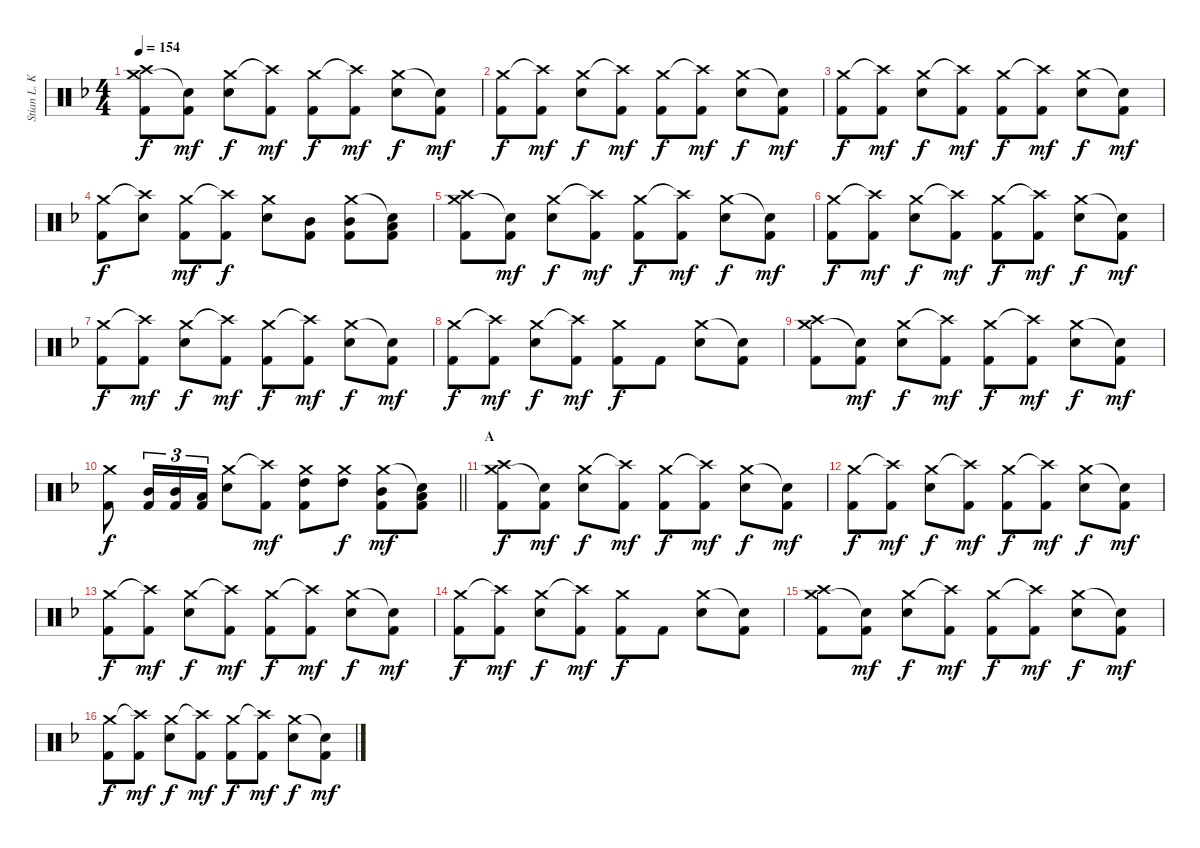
\track ("Stian L. Kristoffersen" "Stian L. K") {instrument percussion}
\staff {score}
\articulation defaults
\ts (4 4)
\tempo 154
\clef neutral
\ks f
("Crash medium (hit)" "Crash high (hit)" "Kick (hit) 2").8{dy f} ("Snare (hit)"{t} "Kick (hit) 2").8{dy mf} ("Crash medium (hit)" "Snare (hit) 2").8{dy f} ("Crash high (hit)"{t} "Kick (hit) 2").8{dy mf} ("Crash medium (hit)" "Kick (hit) 2").8{dy f} ("Crash high (hit)"{t} "Kick (hit) 2").8{dy mf} ("Crash medium (hit)" "Snare (hit) 2").8{dy f} ("Snare (hit)"{t} "Kick (hit) 2").8{dy mf} |
("Crash medium (hit)" "Kick (hit) 2").8{dy f} ("Crash high (hit)"{t} "Kick (hit) 2").8{dy mf} ("Crash medium (hit)" "Snare (hit) 2").8{dy f} ("Crash high (hit)"{t} "Kick (hit) 2").8{dy mf} ("Crash medium (hit)" "Kick (hit) 2").8{dy f} ("Crash high (hit)"{t} "Kick (hit) 2").8{dy mf} ("Crash medium (hit)" "Snare (hit) 2").8{dy f} ("Snare (hit)"{t} "Kick (hit) 2").8{dy mf} |
("Crash medium (hit)" "Kick (hit) 2").8{dy f} ("Crash high (hit)"{t} "Kick (hit) 2").8{dy mf} ("Crash medium (hit)" "Snare (hit) 2").8{dy f} ("Crash high (hit)"{t} "Kick (hit) 2").8{dy mf} ("Crash medium (hit)" "Kick (hit) 2").8{dy f} ("Crash high (hit)"{t} "Kick (hit) 2").8{dy mf} ("Crash medium (hit)" "Snare (hit) 2").8{dy f} ("Snare (hit)"{t} "Kick (hit) 2").8{dy mf} |
("Crash medium (hit)" "Kick (hit) 2").8{dy f} ("Crash high (hit)"{t} "Snare (hit) 2").8 ("Crash medium (hit)" "Kick (hit) 2").8{dy mf} ("Crash high (hit)"{t} "Kick (hit) 2").8{dy f} ("Crash medium (hit)" "Snare (hit) 2").8 ("Mid Tom (hit)" "Kick (hit) 2").8 ("Crash medium (hit)" "Mid Tom (hit)" "Kick (hit) 2").8 ("Snare (hit)"{t} "Low Tom (hit)" "Kick (hit) 2").8 |
("Crash medium (hit)" "Crash high (hit)" "Kick (hit) 2").8 ("Snare (hit)"{t} "Kick (hit) 2").8{dy mf} ("Crash medium (hit)" "Snare (hit) 2").8{dy f} ("Crash high (hit)"{t} "Kick (hit) 2").8{dy mf} ("Crash medium (hit)" "Kick (hit) 2").8{dy f} ("Crash high (hit)"{t} "Kick (hit) 2").8{dy mf} ("Crash medium (hit)" "Snare (hit) 2").8{dy f} ("Snare (hit)"{t} "Kick (hit) 2").8{dy mf} |
("Crash medium (hit)" "Kick (hit) 2").8{dy f} ("Crash high (hit)"{t} "Kick (hit) 2").8{dy mf} ("Crash medium (hit)" "Snare (hit) 2").8{dy f} ("Crash high (hit)"{t} "Kick (hit) 2").8{dy mf} ("Crash medium (hit)" "Kick (hit) 2").8{dy f} ("Crash high (hit)"{t} "Kick (hit) 2").8{dy mf} ("Crash medium (hit)" "Snare (hit) 2").8{dy f} ("Snare (hit)"{t} "Kick (hit) 2").8{dy mf} |
("Crash medium (hit)" "Kick (hit) 2").8{dy f} ("Crash high (hit)"{t} "Kick (hit) 2").8{dy mf} ("Crash medium (hit)" "Snare (hit) 2").8{dy f} ("Crash high (hit)"{t} "Kick (hit) 2").8{dy mf} ("Crash medium (hit)" "Kick (hit) 2").8{dy f} ("Crash high (hit)"{t} "Kick (hit) 2").8{dy mf} ("Crash medium (hit)" "Snare (hit) 2").8{dy f} ("Snare (hit)"{t} "Kick (hit) 2").8{dy mf} |
("Crash medium (hit)" "Kick (hit) 2").8{dy f} ("Crash high (hit)"{t} "Kick (hit) 2").8{dy mf} ("Crash medium (hit)" "Snare (hit) 2").8{dy f} ("Crash high (hit)"{t} "Kick (hit) 2").8{dy mf} ("Crash medium (hit)" "Kick (hit) 2").8{dy f} "Kick (hit) 2".8 ("Crash medium (hit)" "Snare (hit) 2").8 ("Snare (hit)"{t} "Kick (hit) 2").8 |
("Crash medium (hit)" "Crash high (hit)" "Kick (hit) 2").8 ("Snare (hit)"{t} "Kick (hit) 2").8{dy mf} ("Crash medium (hit)" "Snare (hit) 2").8{dy f} ("Crash high (hit)"{t} "Kick (hit) 2").8{dy mf} ("Crash medium (hit)" "Kick (hit) 2").8{dy f} ("Crash high (hit)"{t} "Kick (hit) 2").8{dy mf} ("Crash medium (hit)" "Snare (hit) 2").8{dy f} ("Snare (hit)"{t} "Kick (hit) 2").8{dy mf} |
\barLineRight lightlight
("Crash medium (hit)" "Kick (hit) 2").8{dy f} ("Mid Tom (hit)" "Kick (hit) 2").16{tu (3 2)} ("Mid Tom (hit)" "Kick (hit) 2").16{tu (3 2)} ("Low Tom (hit)" "Kick (hit) 2").16{tu (3 2)} ("Crash medium (hit)" "Snare (hit) 2").8 ("Crash high (hit)"{t} "Kick (hit) 2").8{dy mf} ("High Tom (hit)" "Crash medium (hit)" "Kick (hit) 2").8 ("Crash medium (hit)" "High Tom (hit)").8{dy f} ("Crash medium (hit)" "Mid Tom (hit)" "Kick (hit) 2").8{dy mf} ("Snare (hit)"{t} "Low Tom (hit)" "Kick (hit) 2").8 |
\section ("" "A")
("Crash medium (hit)" "Crash high (hit)" "Kick (hit) 2").8{dy f} ("Snare (hit)"{t} "Kick (hit) 2").8{dy mf} ("Crash medium (hit)" "Snare (hit) 2").8{dy f} ("Crash high (hit)"{t} "Kick (hit) 2").8{dy mf} ("Crash medium (hit)" "Kick (hit) 2").8{dy f} ("Crash high (hit)"{t} "Kick (hit) 2").8{dy mf} ("Crash medium (hit)" "Snare (hit) 2").8{dy f} ("Snare (hit)"{t} "Kick (hit) 2").8{dy mf} |
("Crash medium (hit)" "Kick (hit) 2").8{dy f} ("Crash high (hit)"{t} "Kick (hit) 2").8{dy mf} ("Crash medium (hit)" "Snare (hit) 2").8{dy f} ("Crash high (hit)"{t} "Kick (hit) 2").8{dy mf} ("Crash medium (hit)" "Kick (hit) 2").8{dy f} ("Crash high (hit)"{t} "Kick (hit) 2").8{dy mf} ("Crash medium (hit)" "Snare (hit) 2").8{dy f} ("Snare (hit)"{t} "Kick (hit) 2").8{dy mf} |
("Crash medium (hit)" "Kick (hit) 2").8{dy f} ("Crash high (hit)"{t} "Kick (hit) 2").8{dy mf} ("Crash medium (hit)" "Snare (hit) 2").8{dy f} ("Crash high (hit)"{t} "Kick (hit) 2").8{dy mf} ("Crash medium (hit)" "Kick (hit) 2").8{dy f} ("Crash high (hit)"{t} "Kick (hit) 2").8{dy mf} ("Crash medium (hit)" "Snare (hit) 2").8{dy f} ("Snare (hit)"{t} "Kick (hit) 2").8{dy mf} |
("Crash medium (hit)" "Kick (hit) 2").8{dy f} ("Crash high (hit)"{t} "Kick (hit) 2").8{dy mf} ("Crash medium (hit)" "Snare (hit) 2").8{dy f} ("Crash high (hit)"{t} "Kick (hit) 2").8{dy mf} ("Crash medium (hit)" "Kick (hit) 2").8{dy f} "Kick (hit) 2".8 ("Crash medium (hit)" "Snare (hit) 2").8 ("Snare (hit)"{t} "Kick (hit) 2").8 |
("Crash medium (hit)" "Crash high (hit)" "Kick (hit) 2").8 ("Snare (hit)"{t} "Kick (hit) 2").8{dy mf} ("Crash medium (hit)" "Snare (hit) 2").8{dy f} ("Crash high (hit)"{t} "Kick (hit) 2").8{dy mf} ("Crash medium (hit)" "Kick (hit) 2").8{dy f} ("Crash high (hit)"{t} "Kick (hit) 2").8{dy mf} ("Crash medium (hit)" "Snare (hit) 2").8{dy f} ("Snare (hit)"{t} "Kick (hit) 2").8{dy mf} |
("Crash medium (hit)" "Kick (hit) 2").8{dy f} ("Crash high (hit)"{t} "Kick (hit) 2").8{dy mf} ("Crash medium (hit)" "Snare (hit) 2").8{dy f} ("Crash high (hit)"{t} "Kick (hit) 2").8{dy mf} ("Crash medium (hit)" "Kick (hit) 2").8{dy f} ("Crash high (hit)"{t} "Kick (hit) 2").8{dy mf} ("Crash medium (hit)" "Snare (hit) 2").8{dy f} ("Snare (hit)"{t} "Kick (hit) 2").8{dy mf}
